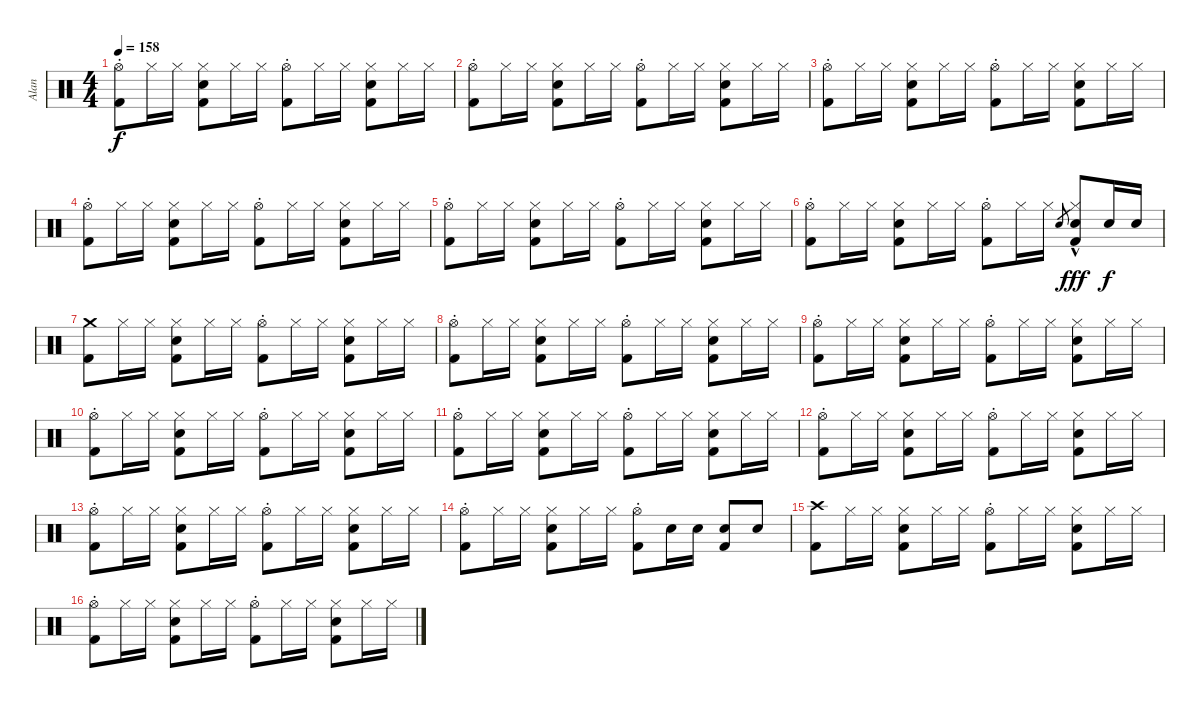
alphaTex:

\track ("Alan" "Alan") {instrument percussion}
\staff {score}
\articulation defaults
\ts (4 4)
\tempo 158
\clef neutral
\ks c
("Hi-Hat (open)"{st} "Kick (hit) 2").8{dy f} "Hi-Hat (closed)".16 "Hi-Hat (closed)".16 ("Hi-Hat (closed)" "Kick (hit) 2" "Snare (hit) 2").8 "Hi-Hat (closed)".16 "Hi-Hat (closed)".16 ("Hi-Hat (open)"{st} "Kick (hit) 2").8 "Hi-Hat (closed)".16 "Hi-Hat (closed)".16 ("Hi-Hat (closed)" "Kick (hit) 2" "Snare (hit) 2").8 "Hi-Hat (closed)".16 "Hi-Hat (closed)".16 |
("Hi-Hat (open)"{st} "Kick (hit) 2").8 "Hi-Hat (closed)".16 "Hi-Hat (closed)".16 ("Hi-Hat (closed)" "Kick (hit) 2" "Snare (hit) 2").8 "Hi-Hat (closed)".16 "Hi-Hat (closed)".16 ("Hi-Hat (open)"{st} "Kick (hit) 2").8 "Hi-Hat (closed)".16 "Hi-Hat (closed)".16 ("Hi-Hat (closed)" "Kick (hit) 2" "Snare (hit) 2").8 "Hi-Hat (closed)".16 "Hi-Hat (closed)".16 |
("Hi-Hat (open)"{st} "Kick (hit) 2").8 "Hi-Hat (closed)".16 "Hi-Hat (closed)".16 ("Hi-Hat (closed)" "Kick (hit) 2" "Snare (hit) 2").8 "Hi-Hat (closed)".16 "Hi-Hat (closed)".16 ("Hi-Hat (open)"{st} "Kick (hit) 2").8 "Hi-Hat (closed)".16 "Hi-Hat (closed)".16 ("Hi-Hat (closed)" "Kick (hit) 2" "Snare (hit) 2").8 "Hi-Hat (closed)".16 "Hi-Hat (closed)".16 |
("Hi-Hat (open)"{st} "Kick (hit) 2").8 "Hi-Hat (closed)".16 "Hi-Hat (closed)".16 ("Hi-Hat (closed)" "Kick (hit) 2" "Snare (hit) 2").8 "Hi-Hat (closed)".16 "Hi-Hat (closed)".16 ("Hi-Hat (open)"{st} "Kick (hit) 2").8 "Hi-Hat (closed)".16 "Hi-Hat (closed)".16 ("Hi-Hat (closed)" "Kick (hit) 2" "Snare (hit) 2").8 "Hi-Hat (closed)".16 "Hi-Hat (closed)".16 |
("Hi-Hat (open)"{st} "Kick (hit) 2").8 "Hi-Hat (closed)".16 "Hi-Hat (closed)".16 ("Hi-Hat (closed)" "Kick (hit) 2" "Snare (hit) 2").8 "Hi-Hat (closed)".16 "Hi-Hat (closed)".16 ("Hi-Hat (open)"{st} "Kick (hit) 2").8 "Hi-Hat (closed)".16 "Hi-Hat (closed)".16 ("Hi-Hat (closed)" "Kick (hit) 2" "Snare (hit) 2").8 "Hi-Hat (closed)".16 "Hi-Hat (closed)".16 |
("Hi-Hat (open)"{st} "Kick (hit) 2").8 "Hi-Hat (closed)".16 "Hi-Hat (closed)".16 ("Hi-Hat (closed)" "Kick (hit) 2" "Snare (hit) 2").8 "Hi-Hat (closed)".16 "Hi-Hat (closed)".16 ("Hi-Hat (open)"{st} "Kick (hit) 2").8 "Hi-Hat (closed)".16 "Hi-Hat (closed)".16 "Snare (hit) 2".8{gr} ("Hi-Hat (closed)" "Kick (hit) 2" "Snare (hit) 2"{hac}).8{dy fff} "Snare (hit) 2".16{dy f} "Snare (hit) 2".16 |
("Crash medium (hit)" "Kick (hit) 2").8 "Hi-Hat (closed)".16 "Hi-Hat (closed)".16 ("Hi-Hat (closed)" "Kick (hit) 2" "Snare (hit) 2").8 "Hi-Hat (closed)".16 "Hi-Hat (closed)".16 ("Hi-Hat (open)"{st} "Kick (hit) 2").8 "Hi-Hat (closed)".16 "Hi-Hat (closed)".16 ("Hi-Hat (closed)" "Kick (hit) 2" "Snare (hit) 2").8 "Hi-Hat (closed)".16 "Hi-Hat (closed)".16 |
("Hi-Hat (open)"{st} "Kick (hit) 2").8 "Hi-Hat (closed)".16 "Hi-Hat (closed)".16 ("Hi-Hat (closed)" "Kick (hit) 2" "Snare (hit) 2").8 "Hi-Hat (closed)".16 "Hi-Hat (closed)".16 ("Hi-Hat (open)"{st} "Kick (hit) 2").8 "Hi-Hat (closed)".16 "Hi-Hat (closed)".16 ("Hi-Hat (closed)" "Kick (hit) 2" "Snare (hit) 2").8 "Hi-Hat (closed)".16 "Hi-Hat (closed)".16 |
("Hi-Hat (open)"{st} "Kick (hit) 2").8 "Hi-Hat (closed)".16 "Hi-Hat (closed)".16 ("Hi-Hat (closed)" "Kick (hit) 2" "Snare (hit) 2").8 "Hi-Hat (closed)".16 "Hi-Hat (closed)".16 ("Hi-Hat (open)"{st} "Kick (hit) 2").8 "Hi-Hat (closed)".16 "Hi-Hat (closed)".16 ("Hi-Hat (closed)" "Kick (hit) 2" "Snare (hit) 2").8 "Hi-Hat (closed)".16 "Hi-Hat (closed)".16 |
("Hi-Hat (open)"{st} "Kick (hit) 2").8 "Hi-Hat (closed)".16 "Hi-Hat (closed)".16 ("Hi-Hat (closed)" "Kick (hit) 2" "Snare (hit) 2").8 "Hi-Hat (closed)".16 "Hi-Hat (closed)".16 ("Hi-Hat (open)"{st} "Kick (hit) 2").8 "Hi-Hat (closed)".16 "Hi-Hat (closed)".16 ("Hi-Hat (closed)" "Kick (hit) 2" "Snare (hit) 2").8 "Hi-Hat (closed)".16 "Hi-Hat (closed)".16 |
("Hi-Hat (open)"{st} "Kick (hit) 2").8 "Hi-Hat (closed)".16 "Hi-Hat (closed)".16 ("Hi-Hat (closed)" "Kick (hit) 2" "Snare (hit) 2").8 "Hi-Hat (closed)".16 "Hi-Hat (closed)".16 ("Hi-Hat (open)"{st} "Kick (hit) 2").8 "Hi-Hat (closed)".16 "Hi-Hat (closed)".16 ("Hi-Hat (closed)" "Kick (hit) 2" "Snare (hit) 2").8 "Hi-Hat (closed)".16 "Hi-Hat (closed)".16 |
("Hi-Hat (open)"{st} "Kick (hit) 2").8 "Hi-Hat (closed)".16 "Hi-Hat (closed)".16 ("Hi-Hat (closed)" "Kick (hit) 2" "Snare (hit) 2").8 "Hi-Hat (closed)".16 "Hi-Hat (closed)".16 ("Hi-Hat (open)"{st} "Kick (hit) 2").8 "Hi-Hat (closed)".16 "Hi-Hat (closed)".16 ("Hi-Hat (closed)" "Kick (hit) 2" "Snare (hit) 2").8 "Hi-Hat (closed)".16 "Hi-Hat (closed)".16 |
("Hi-Hat (open)"{st} "Kick (hit) 2").8 "Hi-Hat (closed)".16 "Hi-Hat (closed)".16 ("Hi-Hat (closed)" "Kick (hit) 2" "Snare (hit) 2").8 "Hi-Hat (closed)".16 "Hi-Hat (closed)".16 ("Hi-Hat (open)"{st} "Kick (hit) 2").8 "Hi-Hat (closed)".16 "Hi-Hat (closed)".16 ("Hi-Hat (closed)" "Kick (hit) 2" "Snare (hit) 2").8 "Hi-Hat (closed)".16 "Hi-Hat (closed)".16 |
("Kick (hit) 2" "Hi-Hat (open)"{st}).8 "Hi-Hat (closed)".16 "Hi-Hat (closed)".16 ("Hi-Hat (closed)" "Kick (hit) 2" "Snare (hit) 2").8 "Hi-Hat (closed)".16 "Hi-Hat (closed)".16 ("Hi-Hat (open)"{st} "Kick (hit) 2").8 "Snare (hit) 2".16 "Snare (hit) 2".16 ("Snare (hit) 2" "Kick (hit) 2").8 "Snare (hit) 2".8 |
("Crash high (hit)" "Kick (hit) 2").8 "Hi-Hat (closed)".16 "Hi-Hat (closed)".16 ("Hi-Hat (closed)" "Kick (hit) 2" "Snare (hit) 2").8 "Hi-Hat (closed)".16 "Hi-Hat (closed)".16 ("Hi-Hat (open)"{st} "Kick (hit) 2").8 "Hi-Hat (closed)".16 "Hi-Hat (closed)".16 ("Hi-Hat (closed)" "Kick (hit) 2" "Snare (hit) 2").8 "Hi-Hat (closed)".16 "Hi-Hat (closed)".16 |
("Hi-Hat (open)"{st} "Kick (hit) 2").8 "Hi-Hat (closed)".16 "Hi-Hat (closed)".16 ("Hi-Hat (closed)" "Kick (hit) 2" "Snare (hit) 2").8 "Hi-Hat (closed)".16 "Hi-Hat (closed)".16 ("Hi-Hat (open)"{st} "Kick (hit) 2").8 "Hi-Hat (closed)".16 "Hi-Hat (closed)".16 ("Hi-Hat (closed)" "Kick (hit) 2" "Snare (hit) 2").8 "Hi-Hat (closed)".16 "Hi-Hat (closed)".16
